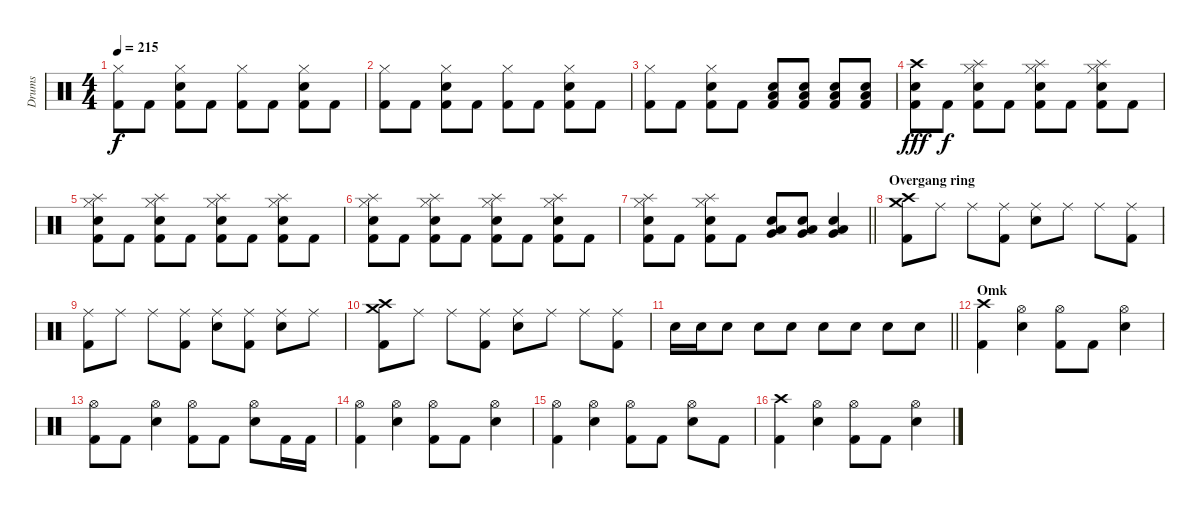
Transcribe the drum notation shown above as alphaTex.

\track ("Drums" "Drums") {instrument percussion}
\staff {score}
\articulation defaults
\ts (4 4)
\tempo 215
\clef neutral
\ks c
("Hi-Hat (closed)" "Kick (hit) 2").8{dy f} "Kick (hit) 2".8 ("Hi-Hat (closed)" "Snare (hit) 2" "Kick (hit) 2").8 "Kick (hit) 2".8 ("Hi-Hat (closed)" "Kick (hit) 2").8 "Kick (hit) 2".8 ("Hi-Hat (closed)" "Snare (hit) 2" "Kick (hit) 2").8 "Kick (hit) 2".8 |
("Hi-Hat (closed)" "Kick (hit) 2").8 "Kick (hit) 2".8 ("Hi-Hat (closed)" "Snare (hit) 2" "Kick (hit) 2").8 "Kick (hit) 2".8 ("Hi-Hat (closed)" "Kick (hit) 2").8 "Kick (hit) 2".8 ("Hi-Hat (closed)" "Snare (hit) 2" "Kick (hit) 2").8 "Kick (hit) 2".8 |
("Hi-Hat (closed)" "Kick (hit) 2").8 "Kick (hit) 2".8 ("Hi-Hat (closed)" "Snare (hit) 2" "Kick (hit) 2").8 "Kick (hit) 2".8 ("Low Tom (hit)" "Snare (hit) 2" "Kick (hit) 2").8 ("Low Tom (hit)" "Snare (hit) 2" "Kick (hit) 2").8 ("Low Tom (hit)" "Snare (hit) 2" "Kick (hit) 2").8 ("Low Tom (hit)" "Snare (hit) 2" "Kick (hit) 2").8 |
("Crash high (hit)" "Snare (hit) 2" "Kick (hit) 2").8{dy fff} "Kick (hit) 2".8{dy f} ("Splash (hit)" "Hi-Hat (closed)" "Snare (hit) 2" "Kick (hit) 2").8 "Kick (hit) 2".8 ("Splash (hit)" "Hi-Hat (closed)" "Snare (hit) 2" "Kick (hit) 2").8 "Kick (hit) 2".8 ("Splash (hit)" "Hi-Hat (closed)" "Snare (hit) 2" "Kick (hit) 2").8 "Kick (hit) 2".8 |
("Splash (hit)" "Hi-Hat (closed)" "Snare (hit) 2" "Kick (hit) 2").8 "Kick (hit) 2".8 ("Splash (hit)" "Hi-Hat (closed)" "Snare (hit) 2" "Kick (hit) 2").8 "Kick (hit) 2".8 ("Splash (hit)" "Hi-Hat (closed)" "Snare (hit) 2" "Kick (hit) 2").8 "Kick (hit) 2".8 ("Splash (hit)" "Hi-Hat (closed)" "Snare (hit) 2" "Kick (hit) 2").8 "Kick (hit) 2".8 |
("Splash (hit)" "Hi-Hat (closed)" "Snare (hit) 2" "Kick (hit) 2").8 "Kick (hit) 2".8 ("Splash (hit)" "Hi-Hat (closed)" "Snare (hit) 2" "Kick (hit) 2").8 "Kick (hit) 2".8 ("Splash (hit)" "Hi-Hat (closed)" "Snare (hit) 2" "Kick (hit) 2").8 "Kick (hit) 2".8 ("Splash (hit)" "Hi-Hat (closed)" "Snare (hit) 2" "Kick (hit) 2").8 "Kick (hit) 2".8 |
\barLineRight lightlight
("Splash (hit)" "Hi-Hat (closed)" "Snare (hit) 2" "Kick (hit) 2").8 "Kick (hit) 2".8 ("Splash (hit)" "Hi-Hat (closed)" "Snare (hit) 2" "Kick (hit) 2").8 "Kick (hit) 2".8 ("Low Tom (hit)" "Very Low Tom (hit)" "Snare (hit) 2").8 ("Low Tom (hit)" "Very Low Tom (hit)" "Snare (hit) 2").8 ("Low Tom (hit)" "Very Low Tom (hit)" "Snare (hit) 2").4 |
\section ("" "Overgang ring")
("Crash medium (hit)" "Crash high (hit)" "Kick (hit) 2").8 "Ride (middle)".8 "Ride (middle)".8 ("Ride (middle)" "Kick (hit) 2").8 ("Ride (middle)" "Snare (hit) 2").8 "Ride (middle)".8 "Ride (middle)".8 ("Ride (middle)" "Kick (hit) 2").8 |
("Ride (middle)" "Kick (hit) 2").8 "Ride (middle)".8 "Ride (middle)".8 ("Ride (middle)" "Kick (hit) 2").8 ("Ride (middle)" "Snare (hit) 2").8 ("Ride (middle)" "Kick (hit) 2").8 ("Ride (middle)" "Snare (hit) 2").8 "Ride (middle)".8 |
("Crash medium (hit)" "Crash high (hit)" "Kick (hit) 2").8 "Ride (middle)".8 "Ride (middle)".8 ("Ride (middle)" "Kick (hit) 2").8 ("Ride (middle)" "Snare (hit) 2").8 "Ride (middle)".8 "Ride (middle)".8 ("Ride (middle)" "Kick (hit) 2").8 |
\barLineRight lightlight "Snare (hit) 2".16 "Snare (hit) 2".16 "Snare (hit) 2".8 "Snare (hit) 2".8 "Snare (hit) 2".8 "Snare (hit) 2".8 "Snare (hit) 2".8 "Snare (hit) 2".8 "Snare (hit) 2".8
|
\section ("" "Omk")
("Crash high (hit)" "Kick (hit) 2").4 ("Hi-Hat (open)" "Snare (hit) 2").4 ("Hi-Hat (open)" "Kick (hit) 2").8 "Kick (hit) 2".8 ("Hi-Hat (open)" "Snare (hit) 2").4 |
("Hi-Hat (open)" "Kick (hit) 2").8 "Kick (hit) 2".8 ("Hi-Hat (open)" "Snare (hit) 2").4 ("Hi-Hat (open)" "Kick (hit) 2").8 "Kick (hit) 2".8 ("Hi-Hat (open)" "Snare (hit) 2").8 "Kick (hit) 2".16 "Kick (hit) 2".16 |
("Hi-Hat (open)" "Kick (hit) 2").4 ("Hi-Hat (open)" "Snare (hit) 2").4 ("Hi-Hat (open)" "Kick (hit) 2").8 "Kick (hit) 2".8 ("Hi-Hat (open)" "Snare (hit) 2").4 |
("Hi-Hat (open)" "Kick (hit) 2").4 ("Hi-Hat (open)" "Snare (hit) 2").4 ("Hi-Hat (open)" "Kick (hit) 2").8 "Kick (hit) 2".8 ("Hi-Hat (open)" "Snare (hit) 2").8 "Kick (hit) 2".8 |
("Crash high (hit)" "Kick (hit) 2").4 ("Hi-Hat (open)" "Snare (hit) 2").4 ("Hi-Hat (open)" "Kick (hit) 2").8 "Kick (hit) 2".8 ("Hi-Hat (open)" "Snare (hit) 2").4
